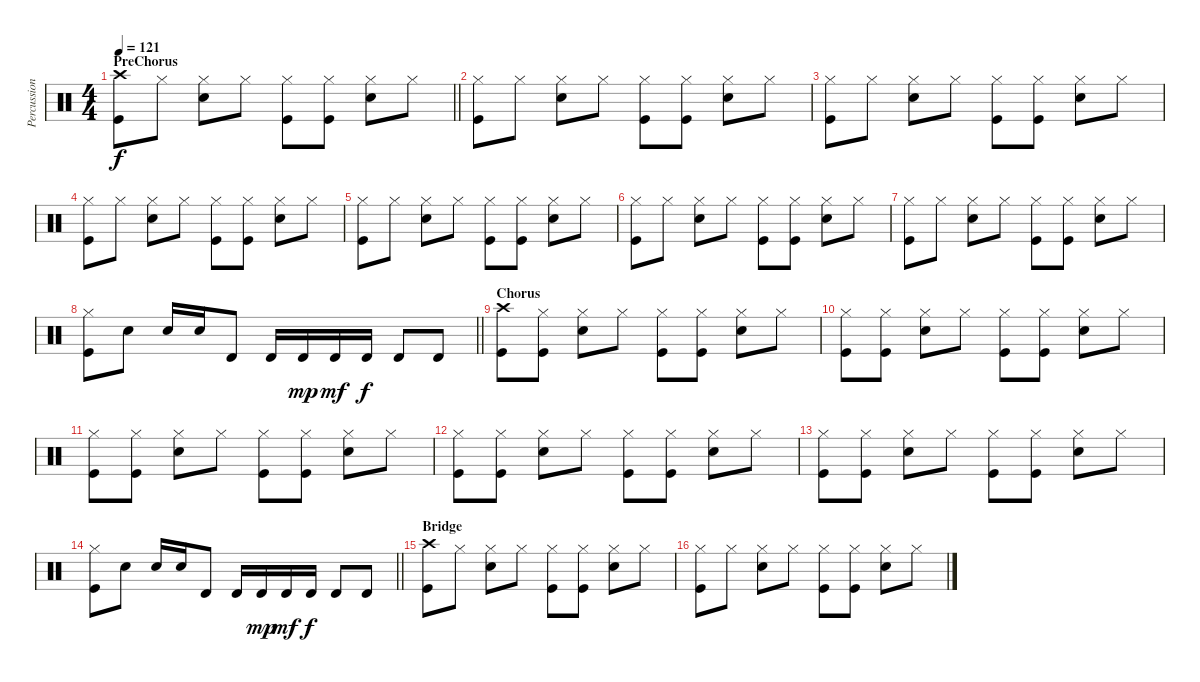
\track ("Percussion" "Percussion") {instrument percussion}
\staff {score}
\articulation defaults
\ts (4 4)
\section ("" "PreChorus")
\tempo 121
\clef neutral
\barLineRight lightlight
\ks c
("Crash high (hit)" "Kick (hit)").8{dy f} "Hi-Hat (closed)".8 ("Hi-Hat (closed)" "Snare (hit) 2").8 "Hi-Hat (closed)".8 ("Hi-Hat (closed)" "Kick (hit)").8 ("Hi-Hat (closed)" "Kick (hit)").8 ("Hi-Hat (closed)" "Snare (hit) 2").8 "Hi-Hat (closed)".8 |
("Hi-Hat (closed)" "Kick (hit)").8 "Hi-Hat (closed)".8 ("Hi-Hat (closed)" "Snare (hit) 2").8 "Hi-Hat (closed)".8 ("Hi-Hat (closed)" "Kick (hit)").8 ("Hi-Hat (closed)" "Kick (hit)").8 ("Hi-Hat (closed)" "Snare (hit) 2").8 "Hi-Hat (closed)".8 |
("Hi-Hat (closed)" "Kick (hit)").8 "Hi-Hat (closed)".8 ("Hi-Hat (closed)" "Snare (hit) 2").8 "Hi-Hat (closed)".8 ("Hi-Hat (closed)" "Kick (hit)").8 ("Hi-Hat (closed)" "Kick (hit)").8 ("Hi-Hat (closed)" "Snare (hit) 2").8 "Hi-Hat (closed)".8 |
("Hi-Hat (closed)" "Kick (hit)").8 "Hi-Hat (closed)".8 ("Hi-Hat (closed)" "Snare (hit) 2").8 "Hi-Hat (closed)".8 ("Hi-Hat (closed)" "Kick (hit)").8 ("Hi-Hat (closed)" "Kick (hit)").8 ("Hi-Hat (closed)" "Snare (hit) 2").8 "Hi-Hat (closed)".8 |
("Hi-Hat (closed)" "Kick (hit)").8 "Hi-Hat (closed)".8 ("Hi-Hat (closed)" "Snare (hit) 2").8 "Hi-Hat (closed)".8 ("Hi-Hat (closed)" "Kick (hit)").8 ("Hi-Hat (closed)" "Kick (hit)").8 ("Hi-Hat (closed)" "Snare (hit) 2").8 "Hi-Hat (closed)".8 |
("Hi-Hat (closed)" "Kick (hit)").8 "Hi-Hat (closed)".8 ("Hi-Hat (closed)" "Snare (hit) 2").8 "Hi-Hat (closed)".8 ("Hi-Hat (closed)" "Kick (hit)").8 ("Hi-Hat (closed)" "Kick (hit)").8 ("Hi-Hat (closed)" "Snare (hit) 2").8 "Hi-Hat (closed)".8 |
("Hi-Hat (closed)" "Kick (hit)").8 "Hi-Hat (closed)".8 ("Hi-Hat (closed)" "Snare (hit) 2").8 "Hi-Hat (closed)".8 ("Hi-Hat (closed)" "Kick (hit)").8 ("Hi-Hat (closed)" "Kick (hit)").8 ("Hi-Hat (closed)" "Snare (hit) 2").8 "Hi-Hat (closed)".8 |
\barLineRight lightlight
("Hi-Hat (closed)" "Kick (hit)").8 "Snare (hit) 2".8 "Snare (hit) 2".16 "Snare (hit) 2".16 "Timbale high (hit)".8 "Timbale high (hit)".16 "Timbale high (hit)".16{dy mp} "Timbale high (hit)".16{dy mf} "Timbale high (hit)".16{dy f} "Timbale high (hit)".8 "Timbale high (hit)".8 |
\section ("" "Chorus")
("Crash high (hit)" "Kick (hit)").8 ("Hi-Hat (closed)" "Kick (hit)").8 ("Hi-Hat (closed)" "Snare (hit) 2").8 "Hi-Hat (closed)".8 ("Hi-Hat (closed)" "Kick (hit)").8 ("Hi-Hat (closed)" "Kick (hit)").8 ("Hi-Hat (closed)" "Snare (hit) 2").8 "Hi-Hat (closed)".8 |
("Hi-Hat (closed)" "Kick (hit)").8 ("Hi-Hat (closed)" "Kick (hit)").8 ("Hi-Hat (closed)" "Snare (hit) 2").8 "Hi-Hat (closed)".8 ("Hi-Hat (closed)" "Kick (hit)").8 ("Hi-Hat (closed)" "Kick (hit)").8 ("Hi-Hat (closed)" "Snare (hit) 2").8 "Hi-Hat (closed)".8 |
("Hi-Hat (closed)" "Kick (hit)").8 ("Hi-Hat (closed)" "Kick (hit)").8 ("Hi-Hat (closed)" "Snare (hit) 2").8 "Hi-Hat (closed)".8 ("Hi-Hat (closed)" "Kick (hit)").8 ("Hi-Hat (closed)" "Kick (hit)").8 ("Hi-Hat (closed)" "Snare (hit) 2").8 "Hi-Hat (closed)".8 |
("Hi-Hat (closed)" "Kick (hit)").8 ("Hi-Hat (closed)" "Kick (hit)").8 ("Hi-Hat (closed)" "Snare (hit) 2").8 "Hi-Hat (closed)".8 ("Hi-Hat (closed)" "Kick (hit)").8 ("Hi-Hat (closed)" "Kick (hit)").8 ("Hi-Hat (closed)" "Snare (hit) 2").8 "Hi-Hat (closed)".8 |
("Hi-Hat (closed)" "Kick (hit)").8 ("Hi-Hat (closed)" "Kick (hit)").8 ("Hi-Hat (closed)" "Snare (hit) 2").8 "Hi-Hat (closed)".8 ("Hi-Hat (closed)" "Kick (hit)").8 ("Hi-Hat (closed)" "Kick (hit)").8 ("Hi-Hat (closed)" "Snare (hit) 2").8 "Hi-Hat (closed)".8 |
\barLineRight lightlight
("Hi-Hat (closed)" "Kick (hit)").8 "Snare (hit) 2".8 "Snare (hit) 2".16 "Snare (hit) 2".16 "Timbale high (hit)".8 "Timbale high (hit)".16 "Timbale high (hit)".16{dy mp} "Timbale high (hit)".16{dy mf} "Timbale high (hit)".16{dy f} "Timbale high (hit)".8 "Timbale high (hit)".8 |
\section ("" "Bridge")
("Crash high (hit)" "Kick (hit)").8 "Hi-Hat (closed)".8 ("Hi-Hat (closed)" "Snare (hit) 2").8 "Hi-Hat (closed)".8 ("Hi-Hat (closed)" "Kick (hit)").8 ("Hi-Hat (closed)" "Kick (hit)").8 ("Hi-Hat (closed)" "Snare (hit) 2").8 "Hi-Hat (closed)".8 |
("Hi-Hat (closed)" "Kick (hit)").8 "Hi-Hat (closed)".8 ("Hi-Hat (closed)" "Snare (hit) 2").8 "Hi-Hat (closed)".8 ("Hi-Hat (closed)" "Kick (hit)").8 ("Hi-Hat (closed)" "Kick (hit)").8 ("Hi-Hat (closed)" "Snare (hit) 2").8 "Hi-Hat (closed)".8
